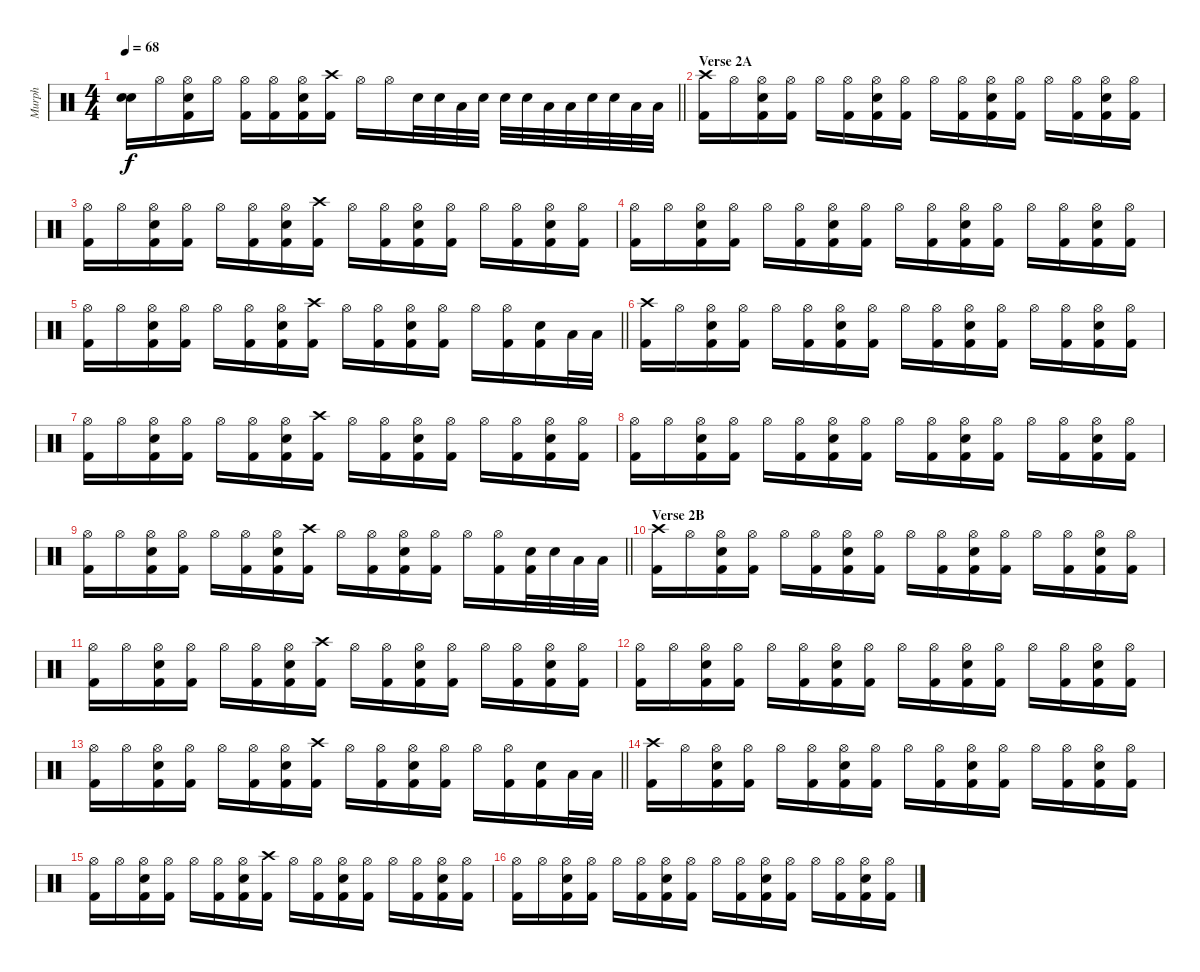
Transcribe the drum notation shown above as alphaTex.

\track ("Murph" "Murph") {instrument percussion}
\staff {score}
\articulation defaults
\ts (4 4)
\tempo 68
\clef neutral
\barLineRight lightlight
\ks c
("Snare (hit)"{t} "Snare (hit)"{t}).16{dy f} "Hi-Hat (open)".16 ("Kick (hit) 2" "Snare (hit) 2" "Hi-Hat (open)").16 "Hi-Hat (open)".16 ("Kick (hit) 2" "Hi-Hat (open)").16 ("Kick (hit) 2" "Hi-Hat (open)").16 ("Kick (hit) 2" "Snare (hit) 2" "Hi-Hat (open)").16 ("Kick (hit) 2" "Crash high (hit)").16 "Hi-Hat (open)".16 "Hi-Hat (open)".16 "Snare (hit) 2".32 "Snare (hit) 2".32 "Low Tom (hit)".32 "Snare (hit) 2".32 "Snare (hit) 2".32 "Snare (hit) 2".32 "Low Tom (hit)".32 "Low Floor Tom (hit)".32 "Snare (hit) 2".32 "Snare (hit) 2".32 "Low Tom (hit)".32 "Low Floor Tom (hit)".32 |
\section ("" "Verse 2A")
("Kick (hit) 2" "Crash high (hit)").16 "Hi-Hat (open)".16 ("Kick (hit) 2" "Snare (hit) 2" "Hi-Hat (open)").16 ("Kick (hit) 2" "Hi-Hat (open)").16 "Hi-Hat (open)".16 ("Kick (hit) 2" "Hi-Hat (open)").16 ("Kick (hit) 2" "Snare (hit) 2" "Hi-Hat (open)").16 ("Kick (hit) 2" "Hi-Hat (open)").16 "Hi-Hat (open)".16 ("Kick (hit) 2" "Hi-Hat (open)").16 ("Kick (hit) 2" "Snare (hit) 2" "Hi-Hat (open)").16 ("Kick (hit) 2" "Hi-Hat (open)").16 "Hi-Hat (open)".16 ("Kick (hit) 2" "Hi-Hat (open)").16 ("Kick (hit) 2" "Snare (hit) 2" "Hi-Hat (open)").16 ("Kick (hit) 2" "Hi-Hat (open)").16 |
("Kick (hit) 2" "Hi-Hat (open)").16 "Hi-Hat (open)".16 ("Kick (hit) 2" "Snare (hit) 2" "Hi-Hat (open)").16 ("Kick (hit) 2" "Hi-Hat (open)").16 "Hi-Hat (open)".16 ("Kick (hit) 2" "Hi-Hat (open)").16 ("Kick (hit) 2" "Snare (hit) 2" "Hi-Hat (open)").16 ("Kick (hit) 2" "Crash high (hit)").16 "Hi-Hat (open)".16 ("Kick (hit) 2" "Hi-Hat (open)").16 ("Kick (hit) 2" "Snare (hit) 2" "Hi-Hat (open)").16 ("Kick (hit) 2" "Hi-Hat (open)").16 "Hi-Hat (open)".16 ("Kick (hit) 2" "Hi-Hat (open)").16 ("Kick (hit) 2" "Snare (hit) 2" "Hi-Hat (open)").16 ("Kick (hit) 2" "Hi-Hat (open)").16 |
("Kick (hit) 2" "Hi-Hat (open)").16 "Hi-Hat (open)".16 ("Kick (hit) 2" "Snare (hit) 2" "Hi-Hat (open)").16 ("Kick (hit) 2" "Hi-Hat (open)").16 "Hi-Hat (open)".16 ("Kick (hit) 2" "Hi-Hat (open)").16 ("Kick (hit) 2" "Snare (hit) 2" "Hi-Hat (open)").16 ("Kick (hit) 2" "Hi-Hat (open)").16 "Hi-Hat (open)".16 ("Kick (hit) 2" "Hi-Hat (open)").16 ("Kick (hit) 2" "Snare (hit) 2" "Hi-Hat (open)").16 ("Kick (hit) 2" "Hi-Hat (open)").16 "Hi-Hat (open)".16 ("Kick (hit) 2" "Hi-Hat (open)").16 ("Kick (hit) 2" "Snare (hit) 2" "Hi-Hat (open)").16 ("Kick (hit) 2" "Hi-Hat (open)").16 |
\barLineRight lightlight
("Kick (hit) 2" "Hi-Hat (open)").16 "Hi-Hat (open)".16 ("Kick (hit) 2" "Snare (hit) 2" "Hi-Hat (open)").16 ("Kick (hit) 2" "Hi-Hat (open)").16 "Hi-Hat (open)".16 ("Kick (hit) 2" "Hi-Hat (open)").16 ("Kick (hit) 2" "Snare (hit) 2" "Hi-Hat (open)").16 ("Kick (hit) 2" "Crash high (hit)").16 "Hi-Hat (open)".16 ("Kick (hit) 2" "Hi-Hat (open)").16 ("Kick (hit) 2" "Snare (hit) 2" "Hi-Hat (open)").16 ("Kick (hit) 2" "Hi-Hat (open)").16 "Hi-Hat (open)".16 ("Kick (hit) 2" "Hi-Hat (open)").16 ("Kick (hit) 2" "Snare (hit) 2").16 "Low Tom (hit)".32 "Low Tom (hit)".32 |
("Kick (hit) 2" "Crash high (hit)").16 "Hi-Hat (open)".16 ("Kick (hit) 2" "Snare (hit) 2" "Hi-Hat (open)").16 ("Kick (hit) 2" "Hi-Hat (open)").16 "Hi-Hat (open)".16 ("Kick (hit) 2" "Hi-Hat (open)").16 ("Kick (hit) 2" "Snare (hit) 2" "Hi-Hat (open)").16 ("Kick (hit) 2" "Hi-Hat (open)").16 "Hi-Hat (open)".16 ("Kick (hit) 2" "Hi-Hat (open)").16 ("Kick (hit) 2" "Snare (hit) 2" "Hi-Hat (open)").16 ("Kick (hit) 2" "Hi-Hat (open)").16 "Hi-Hat (open)".16 ("Kick (hit) 2" "Hi-Hat (open)").16 ("Kick (hit) 2" "Snare (hit) 2" "Hi-Hat (open)").16 ("Kick (hit) 2" "Hi-Hat (open)").16 |
("Kick (hit) 2" "Hi-Hat (open)").16 "Hi-Hat (open)".16 ("Kick (hit) 2" "Snare (hit) 2" "Hi-Hat (open)").16 ("Kick (hit) 2" "Hi-Hat (open)").16 "Hi-Hat (open)".16 ("Kick (hit) 2" "Hi-Hat (open)").16 ("Kick (hit) 2" "Snare (hit) 2" "Hi-Hat (open)").16 ("Kick (hit) 2" "Crash high (hit)").16 "Hi-Hat (open)".16 ("Kick (hit) 2" "Hi-Hat (open)").16 ("Kick (hit) 2" "Snare (hit) 2" "Hi-Hat (open)").16 ("Kick (hit) 2" "Hi-Hat (open)").16 "Hi-Hat (open)".16 ("Kick (hit) 2" "Hi-Hat (open)").16 ("Kick (hit) 2" "Snare (hit) 2" "Hi-Hat (open)").16 ("Kick (hit) 2" "Hi-Hat (open)").16 |
("Kick (hit) 2" "Hi-Hat (open)").16 "Hi-Hat (open)".16 ("Kick (hit) 2" "Snare (hit) 2" "Hi-Hat (open)").16 ("Kick (hit) 2" "Hi-Hat (open)").16 "Hi-Hat (open)".16 ("Kick (hit) 2" "Hi-Hat (open)").16 ("Kick (hit) 2" "Snare (hit) 2" "Hi-Hat (open)").16 ("Kick (hit) 2" "Hi-Hat (open)").16 "Hi-Hat (open)".16 ("Kick (hit) 2" "Hi-Hat (open)").16 ("Kick (hit) 2" "Snare (hit) 2" "Hi-Hat (open)").16 ("Kick (hit) 2" "Hi-Hat (open)").16 "Hi-Hat (open)".16 ("Kick (hit) 2" "Hi-Hat (open)").16 ("Kick (hit) 2" "Snare (hit) 2" "Hi-Hat (open)").16 ("Kick (hit) 2" "Hi-Hat (open)").16 |
\barLineRight lightlight
("Kick (hit) 2" "Hi-Hat (open)").16 "Hi-Hat (open)".16 ("Kick (hit) 2" "Snare (hit) 2" "Hi-Hat (open)").16 ("Kick (hit) 2" "Hi-Hat (open)").16 "Hi-Hat (open)".16 ("Kick (hit) 2" "Hi-Hat (open)").16 ("Kick (hit) 2" "Snare (hit) 2" "Hi-Hat (open)").16 ("Kick (hit) 2" "Crash high (hit)").16 "Hi-Hat (open)".16 ("Kick (hit) 2" "Hi-Hat (open)").16 ("Kick (hit) 2" "Snare (hit) 2" "Hi-Hat (open)").16 ("Kick (hit) 2" "Hi-Hat (open)").16 "Hi-Hat (open)".16 ("Kick (hit) 2" "Hi-Hat (open)").16 ("Kick (hit) 2" "Snare (hit) 2").32 "Snare (hit) 2".32 "Low Tom (hit)".32 "Low Floor Tom (hit)".32 |
\section ("" "Verse 2B")
("Kick (hit) 2" "Crash high (hit)").16 "Hi-Hat (open)".16 ("Kick (hit) 2" "Snare (hit) 2" "Hi-Hat (open)").16 ("Kick (hit) 2" "Hi-Hat (open)").16 "Hi-Hat (open)".16 ("Kick (hit) 2" "Hi-Hat (open)").16 ("Kick (hit) 2" "Snare (hit) 2" "Hi-Hat (open)").16 ("Kick (hit) 2" "Hi-Hat (open)").16 "Hi-Hat (open)".16 ("Kick (hit) 2" "Hi-Hat (open)").16 ("Kick (hit) 2" "Snare (hit) 2" "Hi-Hat (open)").16 ("Kick (hit) 2" "Hi-Hat (open)").16 "Hi-Hat (open)".16 ("Kick (hit) 2" "Hi-Hat (open)").16 ("Kick (hit) 2" "Snare (hit) 2" "Hi-Hat (open)").16 ("Kick (hit) 2" "Hi-Hat (open)").16 |
("Kick (hit) 2" "Hi-Hat (open)").16 "Hi-Hat (open)".16 ("Kick (hit) 2" "Snare (hit) 2" "Hi-Hat (open)").16 ("Kick (hit) 2" "Hi-Hat (open)").16 "Hi-Hat (open)".16 ("Kick (hit) 2" "Hi-Hat (open)").16 ("Kick (hit) 2" "Snare (hit) 2" "Hi-Hat (open)").16 ("Kick (hit) 2" "Crash high (hit)").16 "Hi-Hat (open)".16 ("Kick (hit) 2" "Hi-Hat (open)").16 ("Kick (hit) 2" "Snare (hit) 2" "Hi-Hat (open)").16 ("Kick (hit) 2" "Hi-Hat (open)").16 "Hi-Hat (open)".16 ("Kick (hit) 2" "Hi-Hat (open)").16 ("Kick (hit) 2" "Snare (hit) 2" "Hi-Hat (open)").16 ("Kick (hit) 2" "Hi-Hat (open)").16 |
("Kick (hit) 2" "Hi-Hat (open)").16 "Hi-Hat (open)".16 ("Kick (hit) 2" "Snare (hit) 2" "Hi-Hat (open)").16 ("Kick (hit) 2" "Hi-Hat (open)").16 "Hi-Hat (open)".16 ("Kick (hit) 2" "Hi-Hat (open)").16 ("Kick (hit) 2" "Snare (hit) 2" "Hi-Hat (open)").16 ("Kick (hit) 2" "Hi-Hat (open)").16 "Hi-Hat (open)".16 ("Kick (hit) 2" "Hi-Hat (open)").16 ("Kick (hit) 2" "Snare (hit) 2" "Hi-Hat (open)").16 ("Kick (hit) 2" "Hi-Hat (open)").16 "Hi-Hat (open)".16 ("Kick (hit) 2" "Hi-Hat (open)").16 ("Kick (hit) 2" "Snare (hit) 2" "Hi-Hat (open)").16 ("Kick (hit) 2" "Hi-Hat (open)").16 |
\barLineRight lightlight
("Kick (hit) 2" "Hi-Hat (open)").16 "Hi-Hat (open)".16 ("Kick (hit) 2" "Snare (hit) 2" "Hi-Hat (open)").16 ("Kick (hit) 2" "Hi-Hat (open)").16 "Hi-Hat (open)".16 ("Kick (hit) 2" "Hi-Hat (open)").16 ("Kick (hit) 2" "Snare (hit) 2" "Hi-Hat (open)").16 ("Kick (hit) 2" "Crash high (hit)").16 "Hi-Hat (open)".16 ("Kick (hit) 2" "Hi-Hat (open)").16 ("Kick (hit) 2" "Snare (hit) 2" "Hi-Hat (open)").16 ("Kick (hit) 2" "Hi-Hat (open)").16 "Hi-Hat (open)".16 ("Kick (hit) 2" "Hi-Hat (open)").16 ("Kick (hit) 2" "Snare (hit) 2").16 "Low Tom (hit)".32 "Low Tom (hit)".32 |
("Kick (hit) 2" "Crash high (hit)").16 "Hi-Hat (open)".16 ("Kick (hit) 2" "Snare (hit) 2" "Hi-Hat (open)").16 ("Kick (hit) 2" "Hi-Hat (open)").16 "Hi-Hat (open)".16 ("Kick (hit) 2" "Hi-Hat (open)").16 ("Kick (hit) 2" "Snare (hit) 2" "Hi-Hat (open)").16 ("Kick (hit) 2" "Hi-Hat (open)").16 "Hi-Hat (open)".16 ("Kick (hit) 2" "Hi-Hat (open)").16 ("Kick (hit) 2" "Snare (hit) 2" "Hi-Hat (open)").16 ("Kick (hit) 2" "Hi-Hat (open)").16 "Hi-Hat (open)".16 ("Kick (hit) 2" "Hi-Hat (open)").16 ("Kick (hit) 2" "Snare (hit) 2" "Hi-Hat (open)").16 ("Kick (hit) 2" "Hi-Hat (open)").16 |
("Kick (hit) 2" "Hi-Hat (open)").16 "Hi-Hat (open)".16 ("Kick (hit) 2" "Snare (hit) 2" "Hi-Hat (open)").16 ("Kick (hit) 2" "Hi-Hat (open)").16 "Hi-Hat (open)".16 ("Kick (hit) 2" "Hi-Hat (open)").16 ("Kick (hit) 2" "Snare (hit) 2" "Hi-Hat (open)").16 ("Kick (hit) 2" "Crash high (hit)").16 "Hi-Hat (open)".16 ("Kick (hit) 2" "Hi-Hat (open)").16 ("Kick (hit) 2" "Snare (hit) 2" "Hi-Hat (open)").16 ("Kick (hit) 2" "Hi-Hat (open)").16 "Hi-Hat (open)".16 ("Kick (hit) 2" "Hi-Hat (open)").16 ("Kick (hit) 2" "Snare (hit) 2" "Hi-Hat (open)").16 ("Kick (hit) 2" "Hi-Hat (open)").16 |
("Kick (hit) 2" "Hi-Hat (open)").16 "Hi-Hat (open)".16 ("Kick (hit) 2" "Snare (hit) 2" "Hi-Hat (open)").16 ("Kick (hit) 2" "Hi-Hat (open)").16 "Hi-Hat (open)".16 ("Kick (hit) 2" "Hi-Hat (open)").16 ("Kick (hit) 2" "Snare (hit) 2" "Hi-Hat (open)").16 ("Kick (hit) 2" "Hi-Hat (open)").16 "Hi-Hat (open)".16 ("Kick (hit) 2" "Hi-Hat (open)").16 ("Kick (hit) 2" "Snare (hit) 2" "Hi-Hat (open)").16 ("Kick (hit) 2" "Hi-Hat (open)").16 "Hi-Hat (open)".16 ("Kick (hit) 2" "Hi-Hat (open)").16 ("Kick (hit) 2" "Snare (hit) 2" "Hi-Hat (open)").16 ("Kick (hit) 2" "Hi-Hat (open)").16
